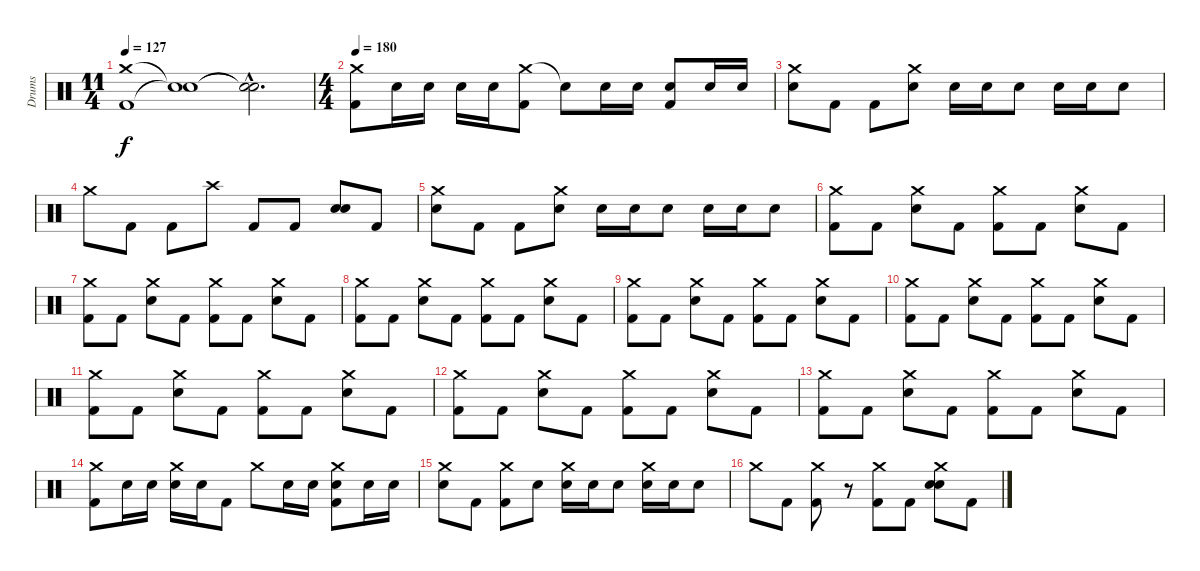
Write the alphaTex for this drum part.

\track ("Drums" "Drums") {instrument percussion}
\staff {score}
\articulation defaults
\ts (11 4)
\tempo 127
\clef neutral
\ks c
("Crash medium (hit)" "Kick (hit) 2").1{dy f} ("Snare (hit)"{t} "Snare (hit)"{t}).1 ("Snare (hit)"{hac t} "Snare (hit)"{hac t}).2{d} |
\ts (4 4)
\tempo 180
("Crash medium (hit)" "Kick (hit) 2").8 "Snare (hit) 2".16 "Snare (hit) 2".16 "Snare (hit) 2".16 "Snare (hit) 2".16 ("Crash medium (hit)" "Kick (hit) 2").8 "Snare (hit)"{t}.8 "Snare (hit) 2".16 "Snare (hit) 2".16 ("Snare (hit) 2" "Kick (hit) 2").8 "Snare (hit) 2".16 "Snare (hit) 2".16 |
("Crash medium (hit)" "Snare (hit) 2").8 "Kick (hit) 2".8 "Kick (hit) 2".8 ("Crash medium (hit)" "Snare (hit) 2").8 "Snare (hit) 2".16 "Snare (hit) 2".16 "Snare (hit) 2".8 "Snare (hit) 2".16 "Snare (hit) 2".16 "Snare (hit) 2".8 |
"Crash medium (hit)".8 "Kick (hit) 2".8 "Kick (hit) 2".8 "Crash high (hit)".8 "Kick (hit) 2".8 "Kick (hit) 2".8 ("Snare (hit) 2" "Snare (hit) 2").8 "Kick (hit) 2".8 |
("Crash medium (hit)" "Snare (hit) 2").8 "Kick (hit) 2".8 "Kick (hit) 2".8 ("Crash medium (hit)" "Snare (hit) 2").8 "Snare (hit) 2".16 "Snare (hit) 2".16 "Snare (hit) 2".8 "Snare (hit) 2".16 "Snare (hit) 2".16 "Snare (hit) 2".8 |
("Crash medium (hit)" "Kick (hit) 2").8 "Kick (hit) 2".8 ("Crash medium (hit)" "Snare (hit) 2").8 "Kick (hit) 2".8 ("Crash medium (hit)" "Kick (hit) 2").8 "Kick (hit) 2".8 ("Crash medium (hit)" "Snare (hit) 2").8 "Kick (hit) 2".8 |
("Crash medium (hit)" "Kick (hit) 2").8 "Kick (hit) 2".8 ("Crash medium (hit)" "Snare (hit) 2").8 "Kick (hit) 2".8 ("Crash medium (hit)" "Kick (hit) 2").8 "Kick (hit) 2".8 ("Crash medium (hit)" "Snare (hit) 2").8 "Kick (hit) 2".8 |
("Crash medium (hit)" "Kick (hit) 2").8 "Kick (hit) 2".8 ("Crash medium (hit)" "Snare (hit) 2").8 "Kick (hit) 2".8 ("Crash medium (hit)" "Kick (hit) 2").8 "Kick (hit) 2".8 ("Crash medium (hit)" "Snare (hit) 2").8 "Kick (hit) 2".8 |
("Crash medium (hit)" "Kick (hit) 2").8 "Kick (hit) 2".8 ("Crash medium (hit)" "Snare (hit) 2").8 "Kick (hit) 2".8 ("Crash medium (hit)" "Kick (hit) 2").8 "Kick (hit) 2".8 ("Crash medium (hit)" "Snare (hit) 2").8 "Kick (hit) 2".8 |
("Crash medium (hit)" "Kick (hit) 2").8 "Kick (hit) 2".8 ("Crash medium (hit)" "Snare (hit) 2").8 "Kick (hit) 2".8 ("Crash medium (hit)" "Kick (hit) 2").8 "Kick (hit) 2".8 ("Crash medium (hit)" "Snare (hit) 2").8 "Kick (hit) 2".8 |
("Crash medium (hit)" "Kick (hit) 2").8 "Kick (hit) 2".8 ("Crash medium (hit)" "Snare (hit) 2").8 "Kick (hit) 2".8 ("Crash medium (hit)" "Kick (hit) 2").8 "Kick (hit) 2".8 ("Crash medium (hit)" "Snare (hit) 2").8 "Kick (hit) 2".8 |
("Crash medium (hit)" "Kick (hit) 2").8 "Kick (hit) 2".8 ("Crash medium (hit)" "Snare (hit) 2").8 "Kick (hit) 2".8 ("Crash medium (hit)" "Kick (hit) 2").8 "Kick (hit) 2".8 ("Crash medium (hit)" "Snare (hit) 2").8 "Kick (hit) 2".8 |
("Crash medium (hit)" "Kick (hit) 2").8 "Kick (hit) 2".8 ("Crash medium (hit)" "Snare (hit) 2").8 "Kick (hit) 2".8 ("Crash medium (hit)" "Kick (hit) 2").8 "Kick (hit) 2".8 ("Crash medium (hit)" "Snare (hit) 2").8 "Kick (hit) 2".8 |
("Crash medium (hit)" "Kick (hit) 2").8 "Snare (hit) 2".16 "Snare (hit) 2".16 ("Crash medium (hit)" "Snare (hit) 2").16 "Snare (hit) 2".16 "Kick (hit) 2".8 "Crash medium (hit)".8 "Snare (hit) 2".16 "Snare (hit) 2".16 ("Crash medium (hit)" "Snare (hit) 2" "Kick (hit) 2").8 "Snare (hit) 2".16 "Snare (hit) 2".16 |
("Crash medium (hit)" "Snare (hit) 2").8 "Kick (hit) 2".8 ("Crash medium (hit)" "Kick (hit) 2").8 "Snare (hit) 2".8 ("Crash medium (hit)" "Snare (hit) 2").16 "Snare (hit) 2".16 "Snare (hit) 2".8 ("Crash medium (hit)" "Snare (hit) 2").16 "Snare (hit) 2".16 "Snare (hit) 2".8 |
"Crash medium (hit)".8 "Kick (hit) 2".8 ("Crash medium (hit)" "Kick (hit) 2").8 r.8 ("Crash medium (hit)" "Kick (hit) 2").8 "Kick (hit) 2".8 ("Crash medium (hit)" "Snare (hit) 2" "Snare (hit) 2").8 "Kick (hit) 2".8
